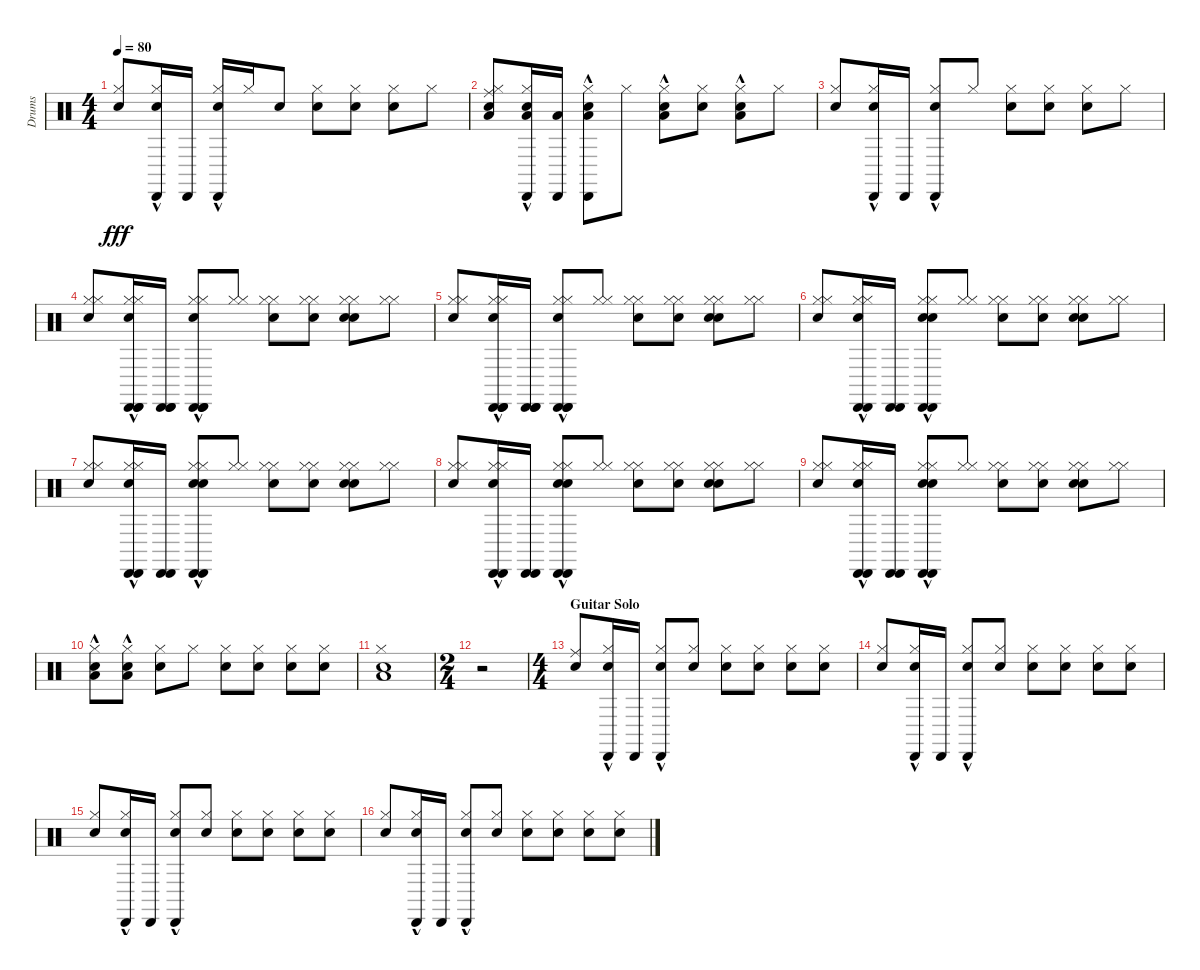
\track ("Drums" "Drums") {instrument percussion}
\staff {score}
\articulation defaults
\ts (4 4)
\tempo 80
\clef neutral
\ks c
("Hi-Hat (closed)" "Snare (hit)").8{dy fff} ("Cabasa (hit)" "Hi-Hat (closed)"{hac} "Snare (hit)"{hac}).16 "Cabasa (hit)".16 ("Cabasa (hit)"{hac} "Hi-Hat (closed)" "Snare (hit) 2"{hac}).16 "Hi-Hat (closed)".16 "Snare (hit) 2".8 ("Snare (hit)" "Hi-Hat (closed)").8 ("Hi-Hat (closed)" "Snare (hit)").8 ("Hi-Hat (closed)" "Snare (hit) 2").8 "Hi-Hat (closed)".8 |
("Ride (middle)" "Snare (hit)" "Hi-Hat (closed)" "Low Floor Tom (hit)").8 ("Cabasa (hit)" "Hi-Hat (closed)"{hac} "Snare (hit)"{hac} "Low Floor Tom (hit)").16 ("Cabasa (hit)" "Low Floor Tom (hit)").16 ("Cabasa (hit)"{hac} "Hi-Hat (closed)"{hac} "Snare (hit) 2"{hac} "Low Floor Tom (hit)"{hac}).8 "Hi-Hat (closed)".8 ("Hi-Hat (closed)"{hac} "Snare (hit)"{hac} "Low Floor Tom (hit)"{hac}).8 ("Hi-Hat (closed)" "Snare (hit)").8 ("Hi-Hat (closed)"{hac} "Snare (hit) 2"{hac} "Low Floor Tom (hit)"{hac}).8 "Hi-Hat (closed)".8 |
("Hi-Hat (closed)" "Snare (hit)").8 ("Cabasa (hit)" "Hi-Hat (closed)"{hac} "Snare (hit)"{hac}).16 "Cabasa (hit)".16 ("Cabasa (hit)"{hac} "Hi-Hat (closed)"{hac} "Snare (hit) 2"{hac}).8 "Hi-Hat (closed)".8 ("Hi-Hat (closed)" "Snare (hit)").8 ("Hi-Hat (closed)" "Snare (hit)").8 ("Hi-Hat (closed)" "Snare (hit) 2").8 "Hi-Hat (closed)".8 |
("Hi-Hat (closed)" "Hi-Hat (closed)" "Snare (hit)").8 ("Cabasa (hit)" "Cabasa (hit)" "Hi-Hat (closed)"{hac} "Cabasa (hit)" "Hi-Hat (closed)"{hac} "Snare (hit)"{hac}).16 ("Cabasa (hit)" "Cabasa (hit)" "Cabasa (hit)").16 ("Cabasa (hit)"{hac} "Cabasa (hit)"{hac} "Hi-Hat (closed)"{hac} "Snare (hit) 2"{hac} "Cabasa (hit)"{hac} "Hi-Hat (closed)"{hac}).8 ("Hi-Hat (closed)" "Hi-Hat (closed)").8 ("Hi-Hat (closed)" "Hi-Hat (closed)" "Snare (hit)").8 ("Hi-Hat (closed)" "Hi-Hat (closed)" "Snare (hit)").8 ("Hi-Hat (closed)" "Snare (hit) 2" "Hi-Hat (closed)" "Snare (hit) 2").8 ("Hi-Hat (closed)" "Hi-Hat (closed)").8 |
("Hi-Hat (closed)" "Hi-Hat (closed)" "Snare (hit)").8 ("Cabasa (hit)" "Cabasa (hit)" "Hi-Hat (closed)"{hac} "Cabasa (hit)" "Hi-Hat (closed)"{hac} "Snare (hit)"{hac}).16 ("Cabasa (hit)" "Cabasa (hit)" "Cabasa (hit)").16 ("Cabasa (hit)"{hac} "Cabasa (hit)"{hac} "Hi-Hat (closed)"{hac} "Snare (hit) 2"{hac} "Cabasa (hit)"{hac} "Hi-Hat (closed)"{hac}).8 ("Hi-Hat (closed)" "Hi-Hat (closed)").8 ("Hi-Hat (closed)" "Hi-Hat (closed)" "Snare (hit)").8 ("Hi-Hat (closed)" "Hi-Hat (closed)" "Snare (hit)").8 ("Hi-Hat (closed)" "Snare (hit) 2" "Hi-Hat (closed)" "Snare (hit) 2").8 ("Hi-Hat (closed)" "Hi-Hat (closed)").8 |
("Hi-Hat (closed)" "Hi-Hat (closed)" "Snare (hit)").8 ("Cabasa (hit)" "Hi-Hat (closed)"{hac} "Cabasa (hit)" "Hi-Hat (closed)"{hac} "Snare (hit)"{hac}).16 ("Cabasa (hit)" "Cabasa (hit)").16 ("Cabasa (hit)"{hac} "Hi-Hat (closed)"{hac} "Snare (hit) 2"{hac} "Cabasa (hit)"{hac} "Hi-Hat (closed)"{hac} "Snare (hit) 2"{hac}).8 ("Hi-Hat (closed)" "Hi-Hat (closed)").8 ("Hi-Hat (closed)" "Hi-Hat (closed)" "Snare (hit)").8 ("Hi-Hat (closed)" "Hi-Hat (closed)" "Snare (hit)").8 ("Hi-Hat (closed)" "Snare (hit) 2" "Hi-Hat (closed)" "Snare (hit) 2").8 ("Hi-Hat (closed)" "Hi-Hat (closed)").8 |
("Hi-Hat (closed)" "Hi-Hat (closed)" "Snare (hit)").8 ("Cabasa (hit)" "Hi-Hat (closed)"{hac} "Cabasa (hit)" "Hi-Hat (closed)"{hac} "Snare (hit)"{hac}).16 ("Cabasa (hit)" "Cabasa (hit)").16 ("Cabasa (hit)"{hac} "Hi-Hat (closed)"{hac} "Snare (hit) 2"{hac} "Cabasa (hit)"{hac} "Hi-Hat (closed)"{hac} "Snare (hit) 2"{hac}).8 ("Hi-Hat (closed)" "Hi-Hat (closed)").8 ("Hi-Hat (closed)" "Hi-Hat (closed)" "Snare (hit)").8 ("Hi-Hat (closed)" "Hi-Hat (closed)" "Snare (hit)").8 ("Hi-Hat (closed)" "Snare (hit) 2" "Hi-Hat (closed)" "Snare (hit) 2").8 ("Hi-Hat (closed)" "Hi-Hat (closed)").8 |
("Hi-Hat (closed)" "Hi-Hat (closed)" "Snare (hit)").8 ("Cabasa (hit)" "Hi-Hat (closed)"{hac} "Cabasa (hit)" "Hi-Hat (closed)"{hac} "Snare (hit)"{hac}).16 ("Cabasa (hit)" "Cabasa (hit)").16 ("Cabasa (hit)"{hac} "Hi-Hat (closed)"{hac} "Snare (hit) 2"{hac} "Cabasa (hit)"{hac} "Hi-Hat (closed)"{hac} "Snare (hit) 2"{hac}).8 ("Hi-Hat (closed)" "Hi-Hat (closed)").8 ("Hi-Hat (closed)" "Hi-Hat (closed)" "Snare (hit)").8 ("Hi-Hat (closed)" "Hi-Hat (closed)" "Snare (hit)").8 ("Hi-Hat (closed)" "Snare (hit) 2" "Hi-Hat (closed)" "Snare (hit) 2").8 ("Hi-Hat (closed)" "Hi-Hat (closed)").8 |
("Hi-Hat (closed)" "Hi-Hat (closed)" "Snare (hit)").8 ("Cabasa (hit)" "Hi-Hat (closed)"{hac} "Cabasa (hit)" "Hi-Hat (closed)"{hac} "Snare (hit)"{hac}).16 ("Cabasa (hit)" "Cabasa (hit)").16 ("Cabasa (hit)"{hac} "Hi-Hat (closed)"{hac} "Snare (hit) 2"{hac} "Cabasa (hit)"{hac} "Hi-Hat (closed)"{hac} "Snare (hit) 2"{hac}).8 ("Hi-Hat (closed)" "Hi-Hat (closed)").8 ("Hi-Hat (closed)" "Hi-Hat (closed)" "Snare (hit)").8 ("Hi-Hat (closed)" "Hi-Hat (closed)" "Snare (hit)").8 ("Hi-Hat (closed)" "Snare (hit) 2" "Hi-Hat (closed)" "Snare (hit) 2").8 ("Hi-Hat (closed)" "Hi-Hat (closed)").8 |
("Hi-Hat (closed)"{hac} "Snare (hit)"{hac} "Low Floor Tom (hit)").8 ("Hi-Hat (closed)"{hac} "Snare (hit)"{hac} "Low Floor Tom (hit)"{hac}).8 ("Hi-Hat (closed)" "Snare (hit) 2").8 "Hi-Hat (closed)".8 ("Hi-Hat (closed)" "Snare (hit)").8 ("Hi-Hat (closed)" "Snare (hit)").8 ("Hi-Hat (closed)" "Snare (hit) 2").8 ("Hi-Hat (closed)" "Snare (hit)").8 |
("Hi-Hat (closed)" "Snare (hit)" "Low Floor Tom (hit)").1 |
\ts (2 4)
r.2 |
\ts (4 4)
\section ("" "Guitar Solo")
("Ride (middle)" "Snare (hit)").8 ("Hi-Hat (closed)"{hac} "Snare (hit)"{hac} "Cabasa (hit)").16 "Cabasa (hit)".16 ("Hi-Hat (closed)"{hac} "Snare (hit) 2"{hac} "Cabasa (hit)"{hac}).8 ("Hi-Hat (closed)" "Snare (hit)").8 ("Hi-Hat (closed)" "Snare (hit)").8 ("Hi-Hat (closed)" "Snare (hit)").8 ("Hi-Hat (closed)" "Snare (hit) 2").8 ("Hi-Hat (closed)" "Snare (hit)").8 |
("Snare (hit)" "Hi-Hat (closed)").8 ("Hi-Hat (closed)"{hac} "Snare (hit)"{hac} "Cabasa (hit)").16 "Cabasa (hit)".16 ("Hi-Hat (closed)"{hac} "Snare (hit) 2"{hac} "Cabasa (hit)"{hac}).8 ("Hi-Hat (closed)" "Snare (hit)").8 ("Hi-Hat (closed)" "Snare (hit)").8 ("Hi-Hat (closed)" "Snare (hit)").8 ("Hi-Hat (closed)" "Snare (hit) 2").8 ("Hi-Hat (closed)" "Snare (hit)").8 |
("Snare (hit)" "Hi-Hat (closed)").8 ("Hi-Hat (closed)"{hac} "Snare (hit)"{hac} "Cabasa (hit)").16 "Cabasa (hit)".16 ("Hi-Hat (closed)"{hac} "Snare (hit) 2"{hac} "Cabasa (hit)"{hac}).8 ("Hi-Hat (closed)" "Snare (hit)").8 ("Hi-Hat (closed)" "Snare (hit)").8 ("Hi-Hat (closed)" "Snare (hit)").8 ("Hi-Hat (closed)" "Snare (hit) 2").8 ("Hi-Hat (closed)" "Snare (hit)").8 |
("Snare (hit)" "Hi-Hat (closed)").8 ("Hi-Hat (closed)"{hac} "Snare (hit)"{hac} "Cabasa (hit)").16 "Cabasa (hit)".16 ("Hi-Hat (closed)"{hac} "Snare (hit) 2"{hac} "Cabasa (hit)"{hac}).8 ("Hi-Hat (closed)" "Snare (hit)").8 ("Hi-Hat (closed)" "Snare (hit)").8 ("Hi-Hat (closed)" "Snare (hit)").8 ("Hi-Hat (closed)" "Snare (hit) 2").8 ("Hi-Hat (closed)" "Snare (hit)").8
